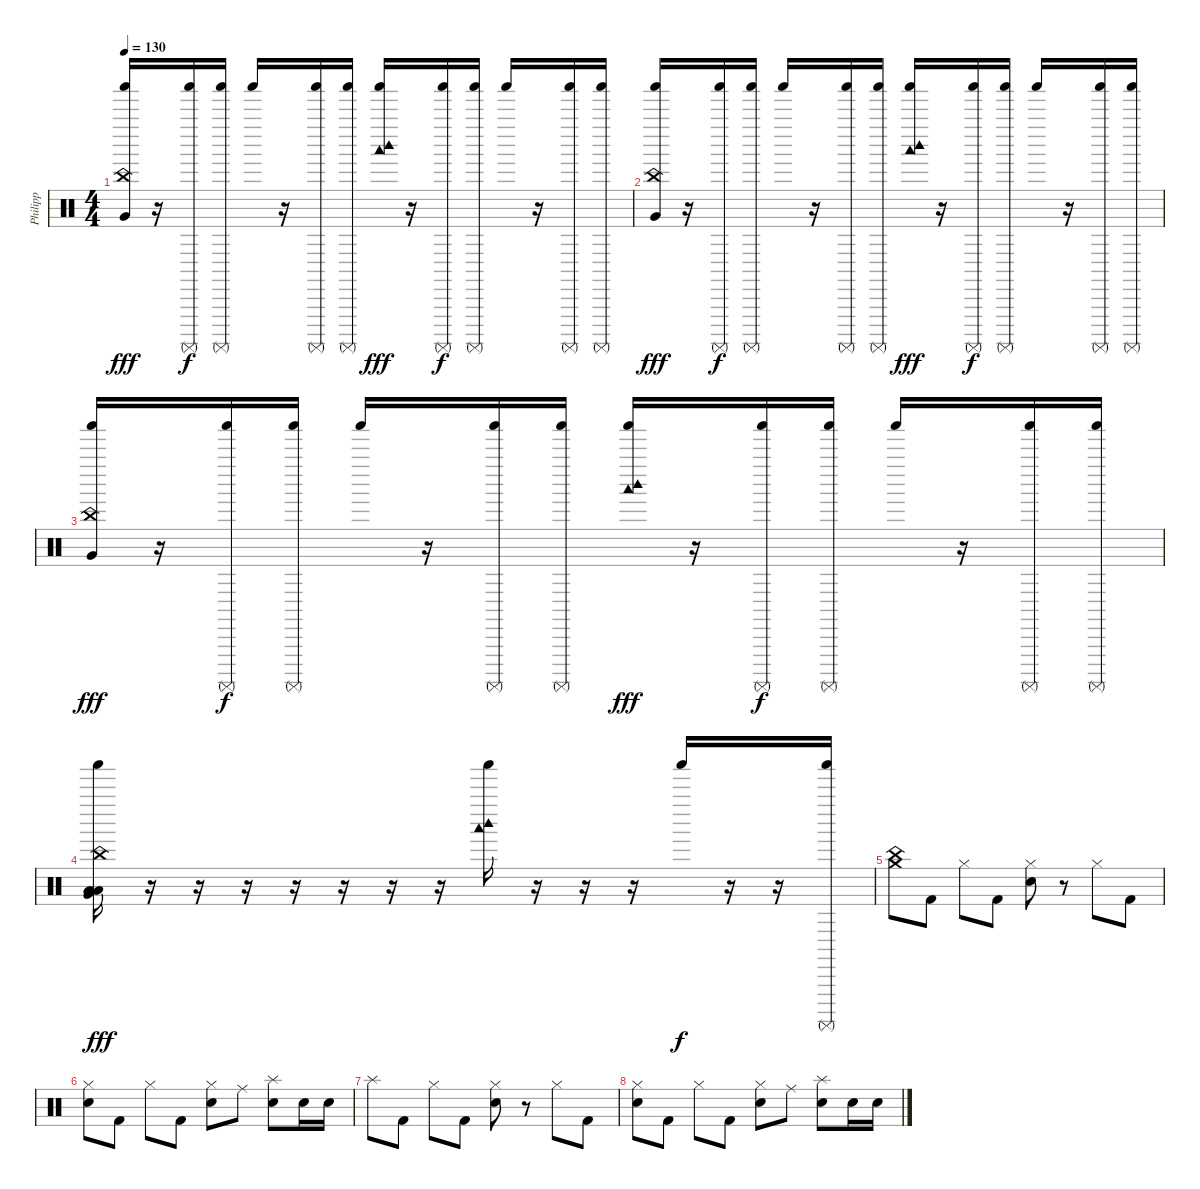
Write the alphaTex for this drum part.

\track ("Philipp" "Philipp") {instrument percussion}
\staff {score}
\articulation defaults
\ts (4 4)
\tempo 130
\clef neutral
\ks c
("Shaker (hit)" "China (hit)" "Very Low Tom (hit)").16{dy fff} r.16 ("Shaker (hit)" "Surdo (mute)").16{dy f} ("Shaker (hit)" "Surdo (mute)").16 "Shaker (hit)".16 r.16 ("Shaker (hit)" "Surdo (mute)").16 ("Shaker (hit)" "Surdo (mute)").16 ("Shaker (hit)" "Woodblock high (hit)" "Woodblock low (hit)").16{dy fff} r.16 ("Shaker (hit)" "Surdo (mute)").16{dy f} ("Shaker (hit)" "Surdo (mute)").16 "Shaker (hit)".16 r.16 ("Shaker (hit)" "Surdo (mute)").16 ("Shaker (hit)" "Surdo (mute)").16 |
("Shaker (hit)" "China (hit)" "Very Low Tom (hit)").16{dy fff} r.16 ("Shaker (hit)" "Surdo (mute)").16{dy f} ("Shaker (hit)" "Surdo (mute)").16 "Shaker (hit)".16 r.16 ("Shaker (hit)" "Surdo (mute)").16 ("Shaker (hit)" "Surdo (mute)").16 ("Shaker (hit)" "Woodblock high (hit)" "Woodblock low (hit)").16{dy fff} r.16 ("Shaker (hit)" "Surdo (mute)").16{dy f} ("Shaker (hit)" "Surdo (mute)").16 "Shaker (hit)".16 r.16 ("Shaker (hit)" "Surdo (mute)").16 ("Shaker (hit)" "Surdo (mute)").16 |
("Shaker (hit)" "China (hit)" "Very Low Tom (hit)").16{dy fff} r.16 ("Shaker (hit)" "Surdo (mute)").16{dy f} ("Shaker (hit)" "Surdo (mute)").16 "Shaker (hit)".16 r.16 ("Shaker (hit)" "Surdo (mute)").16 ("Shaker (hit)" "Surdo (mute)").16 ("Shaker (hit)" "Woodblock high (hit)" "Woodblock low (hit)").16{dy fff} r.16 ("Shaker (hit)" "Surdo (mute)").16{dy f} ("Shaker (hit)" "Surdo (mute)").16 "Shaker (hit)".16 r.16 ("Shaker (hit)" "Surdo (mute)").16 ("Shaker (hit)" "Surdo (mute)").16 |
("Shaker (hit)" "China (hit)" "Very Low Tom (hit)" "Low Tom (hit)" "Low Floor Tom (hit)").16{dy fff} r.16 r.16 r.16 r.16 r.16 r.16 r.16 ("Shaker (hit)" "Woodblock high (hit)" "Woodblock low (hit)").16 r.16 r.16 r.16 "Shaker (hit)".16{dy f} r.16 r.16 ("Shaker (hit)" "Surdo (mute)").16 |
("China (hit)" "Crash medium (hit)").8 "Kick (hit) 2".8 "Hi-Hat (closed)".8 "Kick (hit) 2".8 ("Hi-Hat (closed)" "Electric Snare (hit)").8 r.8 "Hi-Hat (closed)".8 "Kick (hit) 2".8 |
("Hi-Hat (closed)" "Electric Snare (hit)").8 "Kick (hit) 2".8 "Hi-Hat (closed)".8 "Kick (hit) 2".8 ("Hi-Hat (closed)" "Electric Snare (hit)").8 "Ride (middle)".8 ("Splash (hit)" "Electric Snare (hit)").8 "Electric Snare (hit)".16 "Electric Snare (hit)".16 |
"Splash (hit)".8 "Kick (hit) 2".8 "Hi-Hat (closed)".8 "Kick (hit) 2".8 ("Hi-Hat (closed)" "Electric Snare (hit)").8 r.8 "Hi-Hat (closed)".8 "Kick (hit) 2".8 |
("Hi-Hat (closed)" "Electric Snare (hit)").8 "Kick (hit) 2".8 "Hi-Hat (closed)".8 "Kick (hit) 2".8 ("Hi-Hat (closed)" "Electric Snare (hit)").8 "Ride (middle)".8 ("Splash (hit)" "Electric Snare (hit)").8 "Electric Snare (hit)".16 "Electric Snare (hit)".16
